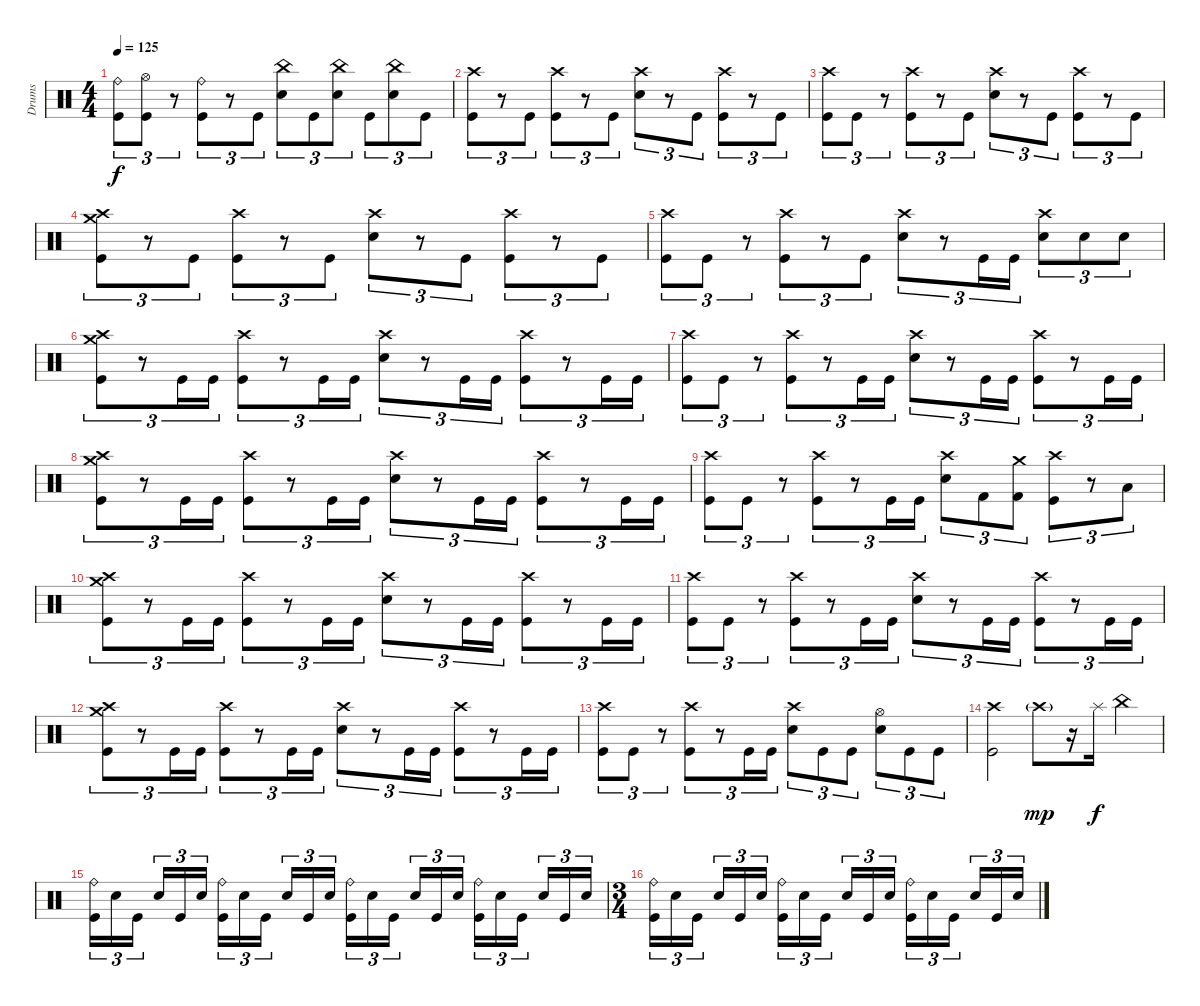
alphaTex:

\track ("Drums" "Drums") {instrument percussion}
\staff {score}
\articulation defaults
\ts (4 4)
\tempo 125
\clef neutral
\ks c
("Ride (bell)" "Kick (hit)").8{tu (3 2) dy f} ("Hi-Hat (open)" "Kick (hit)").8{tu (3 2)} r.8{tu (3 2)} ("Ride (bell)" "Kick (hit)").8{tu (3 2)} r.8{tu (3 2)} "Kick (hit)".8{tu (3 2)} ("China (hit)" "Electric Snare (hit)").8{tu (3 2)} "Kick (hit)".8{tu (3 2)} ("China (hit)" "Electric Snare (hit)").8{tu (3 2)} "Kick (hit)".8{tu (3 2)} ("China (hit)" "Electric Snare (hit)").8{tu (3 2)} "Kick (hit)".8{tu (3 2)} |
("Crash high (hit)" "Kick (hit)").8{tu (3 2)} r.8{tu (3 2)} "Kick (hit)".8{tu (3 2)} ("Crash high (hit)" "Kick (hit)").8{tu (3 2)} r.8{tu (3 2)} "Kick (hit)".8{tu (3 2)} ("Crash high (hit)" "Electric Snare (hit)").8{tu (3 2)} r.8{tu (3 2)} "Kick (hit)".8{tu (3 2)} ("Crash high (hit)" "Kick (hit)").8{tu (3 2)} r.8{tu (3 2)} "Kick (hit)".8{tu (3 2)} |
("Crash high (hit)" "Kick (hit)").8{tu (3 2)} "Kick (hit)".8{tu (3 2)} r.8{tu (3 2)} ("Crash high (hit)" "Kick (hit)").8{tu (3 2)} r.8{tu (3 2)} "Kick (hit)".8{tu (3 2)} ("Crash high (hit)" "Electric Snare (hit)").8{tu (3 2)} r.8{tu (3 2)} "Kick (hit)".8{tu (3 2)} ("Crash high (hit)" "Kick (hit)").8{tu (3 2)} r.8{tu (3 2)} "Kick (hit)".8{tu (3 2)} |
("Crash medium (hit)" "Crash high (hit)" "Kick (hit)").8{tu (3 2)} r.8{tu (3 2)} "Kick (hit)".8{tu (3 2)} ("Crash high (hit)" "Kick (hit)").8{tu (3 2)} r.8{tu (3 2)} "Kick (hit)".8{tu (3 2)} ("Crash high (hit)" "Electric Snare (hit)").8{tu (3 2)} r.8{tu (3 2)} "Kick (hit)".8{tu (3 2)} ("Crash high (hit)" "Kick (hit)").8{tu (3 2)} r.8{tu (3 2)} "Kick (hit)".8{tu (3 2)} |
("Crash high (hit)" "Kick (hit)").8{tu (3 2)} "Kick (hit)".8{tu (3 2)} r.8{tu (3 2)} ("Crash high (hit)" "Kick (hit)").8{tu (3 2)} r.8{tu (3 2)} "Kick (hit)".8{tu (3 2)} ("Crash high (hit)" "Electric Snare (hit)").8{tu (3 2)} r.8{tu (3 2)} "Kick (hit)".16{tu (3 2)} "Kick (hit)".16{tu (3 2)} ("Crash high (hit)" "Electric Snare (hit)").8{tu (3 2)} "Electric Snare (hit)".8{tu (3 2)} "Electric Snare (hit)".8{tu (3 2)} |
("Crash high (hit)" "Crash medium (hit)" "Kick (hit)").8{tu (3 2)} r.8{tu (3 2)} "Kick (hit)".16{tu (3 2)} "Kick (hit)".16{tu (3 2)} ("Crash high (hit)" "Kick (hit)").8{tu (3 2)} r.8{tu (3 2)} "Kick (hit)".16{tu (3 2)} "Kick (hit)".16{tu (3 2)} ("Crash high (hit)" "Electric Snare (hit)").8{tu (3 2)} r.8{tu (3 2)} "Kick (hit)".16{tu (3 2)} "Kick (hit)".16{tu (3 2)} ("Crash high (hit)" "Kick (hit)").8{tu (3 2)} r.8{tu (3 2)} "Kick (hit)".16{tu (3 2)} "Kick (hit)".16{tu (3 2)} |
("Crash high (hit)" "Kick (hit)").8{tu (3 2)} "Kick (hit)".8{tu (3 2)} r.8{tu (3 2)} ("Crash high (hit)" "Kick (hit)").8{tu (3 2)} r.8{tu (3 2)} "Kick (hit)".16{tu (3 2)} "Kick (hit)".16{tu (3 2)} ("Crash high (hit)" "Electric Snare (hit)").8{tu (3 2)} r.8{tu (3 2)} "Kick (hit)".16{tu (3 2)} "Kick (hit)".16{tu (3 2)} ("Crash high (hit)" "Kick (hit)").8{tu (3 2)} r.8{tu (3 2)} "Kick (hit)".16{tu (3 2)} "Kick (hit)".16{tu (3 2)} |
("Crash high (hit)" "Crash medium (hit)" "Kick (hit)").8{tu (3 2)} r.8{tu (3 2)} "Kick (hit)".16{tu (3 2)} "Kick (hit)".16{tu (3 2)} ("Crash high (hit)" "Kick (hit)").8{tu (3 2)} r.8{tu (3 2)} "Kick (hit)".16{tu (3 2)} "Kick (hit)".16{tu (3 2)} ("Crash high (hit)" "Electric Snare (hit)").8{tu (3 2)} r.8{tu (3 2)} "Kick (hit)".16{tu (3 2)} "Kick (hit)".16{tu (3 2)} ("Crash high (hit)" "Kick (hit)").8{tu (3 2)} r.8{tu (3 2)} "Kick (hit)".16{tu (3 2)} "Kick (hit)".16{tu (3 2)} |
("Crash high (hit)" "Kick (hit)").8{tu (3 2)} "Kick (hit)".8{tu (3 2)} r.8{tu (3 2)} ("Crash high (hit)" "Kick (hit)").8{tu (3 2)} r.8{tu (3 2)} "Kick (hit)".16{tu (3 2)} "Kick (hit)".16{tu (3 2)} ("Crash high (hit)" "Electric Snare (hit)").8{tu (3 2)} "Kick (hit) 2".8{tu (3 2)} ("Crash medium (hit)" "Kick (hit) 2").8{tu (3 2)} ("Crash high (hit)" "Kick (hit)").8{tu (3 2)} r.8{tu (3 2)} "Low Floor Tom (hit)".8{tu (3 2)} |
("Crash high (hit)" "Crash medium (hit)" "Kick (hit)").8{tu (3 2)} r.8{tu (3 2)} "Kick (hit)".16{tu (3 2)} "Kick (hit)".16{tu (3 2)} ("Crash high (hit)" "Kick (hit)").8{tu (3 2)} r.8{tu (3 2)} "Kick (hit)".16{tu (3 2)} "Kick (hit)".16{tu (3 2)} ("Crash high (hit)" "Electric Snare (hit)").8{tu (3 2)} r.8{tu (3 2)} "Kick (hit)".16{tu (3 2)} "Kick (hit)".16{tu (3 2)} ("Crash high (hit)" "Kick (hit)").8{tu (3 2)} r.8{tu (3 2)} "Kick (hit)".16{tu (3 2)} "Kick (hit)".16{tu (3 2)} |
("Crash high (hit)" "Kick (hit)").8{tu (3 2)} "Kick (hit)".8{tu (3 2)} r.8{tu (3 2)} ("Crash high (hit)" "Kick (hit)").8{tu (3 2)} r.8{tu (3 2)} "Kick (hit)".16{tu (3 2)} "Kick (hit)".16{tu (3 2)} ("Crash high (hit)" "Electric Snare (hit)").8{tu (3 2)} r.8{tu (3 2)} "Kick (hit)".16{tu (3 2)} "Kick (hit)".16{tu (3 2)} ("Crash high (hit)" "Kick (hit)").8{tu (3 2)} r.8{tu (3 2)} "Kick (hit)".16{tu (3 2)} "Kick (hit)".16{tu (3 2)} |
("Crash high (hit)" "Crash medium (hit)" "Kick (hit)").8{tu (3 2)} r.8{tu (3 2)} "Kick (hit)".16{tu (3 2)} "Kick (hit)".16{tu (3 2)} ("Crash high (hit)" "Kick (hit)").8{tu (3 2)} r.8{tu (3 2)} "Kick (hit)".16{tu (3 2)} "Kick (hit)".16{tu (3 2)} ("Crash high (hit)" "Electric Snare (hit)").8{tu (3 2)} r.8{tu (3 2)} "Kick (hit)".16{tu (3 2)} "Kick (hit)".16{tu (3 2)} ("Crash high (hit)" "Kick (hit)").8{tu (3 2)} r.8{tu (3 2)} "Kick (hit)".16{tu (3 2)} "Kick (hit)".16{tu (3 2)} |
("Crash high (hit)" "Kick (hit)").8{tu (3 2)} "Kick (hit)".8{tu (3 2)} r.8{tu (3 2)} ("Crash high (hit)" "Kick (hit)").8{tu (3 2)} r.8{tu (3 2)} "Kick (hit)".16{tu (3 2)} "Kick (hit)".16{tu (3 2)} ("Crash high (hit)" "Electric Snare (hit)").8{tu (3 2)} "Kick (hit)".8{tu (3 2)} "Kick (hit)".8{tu (3 2)} ("Hi-Hat (open)" "Electric Snare (hit)").8{tu (3 2)} "Kick (hit)".8{tu (3 2)} "Kick (hit)".8{tu (3 2)} |
("Crash high (hit)" "Kick (hit)").2 "Crash high (hit)"{g}.8{dy mp} r.16 "Splash (hit)".16{dy f} "China (hit)".4 |
("Ride (bell)" "Kick (hit)").16{tu (3 2)} "Electric Snare (hit)".16{tu (3 2)} "Kick (hit)".16{tu (3 2) beam splitsecondary} "Electric Snare (hit)".16{tu (3 2)} "Kick (hit)".16{tu (3 2)} "Electric Snare (hit)".16{tu (3 2)} ("Ride (bell)" "Kick (hit)").16{tu (3 2)} "Electric Snare (hit)".16{tu (3 2)} "Kick (hit)".16{tu (3 2) beam splitsecondary} "Electric Snare (hit)".16{tu (3 2)} "Kick (hit)".16{tu (3 2)} "Electric Snare (hit)".16{tu (3 2)} ("Ride (bell)" "Kick (hit)").16{tu (3 2)} "Electric Snare (hit)".16{tu (3 2)} "Kick (hit)".16{tu (3 2) beam splitsecondary} "Electric Snare (hit)".16{tu (3 2)} "Kick (hit)".16{tu (3 2)} "Electric Snare (hit)".16{tu (3 2)} ("Ride (bell)" "Kick (hit)").16{tu (3 2)} "Electric Snare (hit)".16{tu (3 2)} "Kick (hit)".16{tu (3 2) beam splitsecondary} "Electric Snare (hit)".16{tu (3 2)} "Kick (hit)".16{tu (3 2)} "Electric Snare (hit)".16{tu (3 2)} |
\ts (3 4)
("Ride (bell)" "Kick (hit)").16{tu (3 2)} "Electric Snare (hit)".16{tu (3 2)} "Kick (hit)".16{tu (3 2) beam splitsecondary} "Electric Snare (hit)".16{tu (3 2)} "Kick (hit)".16{tu (3 2)} "Electric Snare (hit)".16{tu (3 2)} ("Ride (bell)" "Kick (hit)").16{tu (3 2)} "Electric Snare (hit)".16{tu (3 2)} "Kick (hit)".16{tu (3 2) beam splitsecondary} "Electric Snare (hit)".16{tu (3 2)} "Kick (hit)".16{tu (3 2)} "Electric Snare (hit)".16{tu (3 2)} ("Ride (bell)" "Kick (hit)").16{tu (3 2)} "Electric Snare (hit)".16{tu (3 2)} "Kick (hit)".16{tu (3 2) beam splitsecondary} "Electric Snare (hit)".16{tu (3 2)} "Kick (hit)".16{tu (3 2)} "Electric Snare (hit)".16{tu (3 2)}
